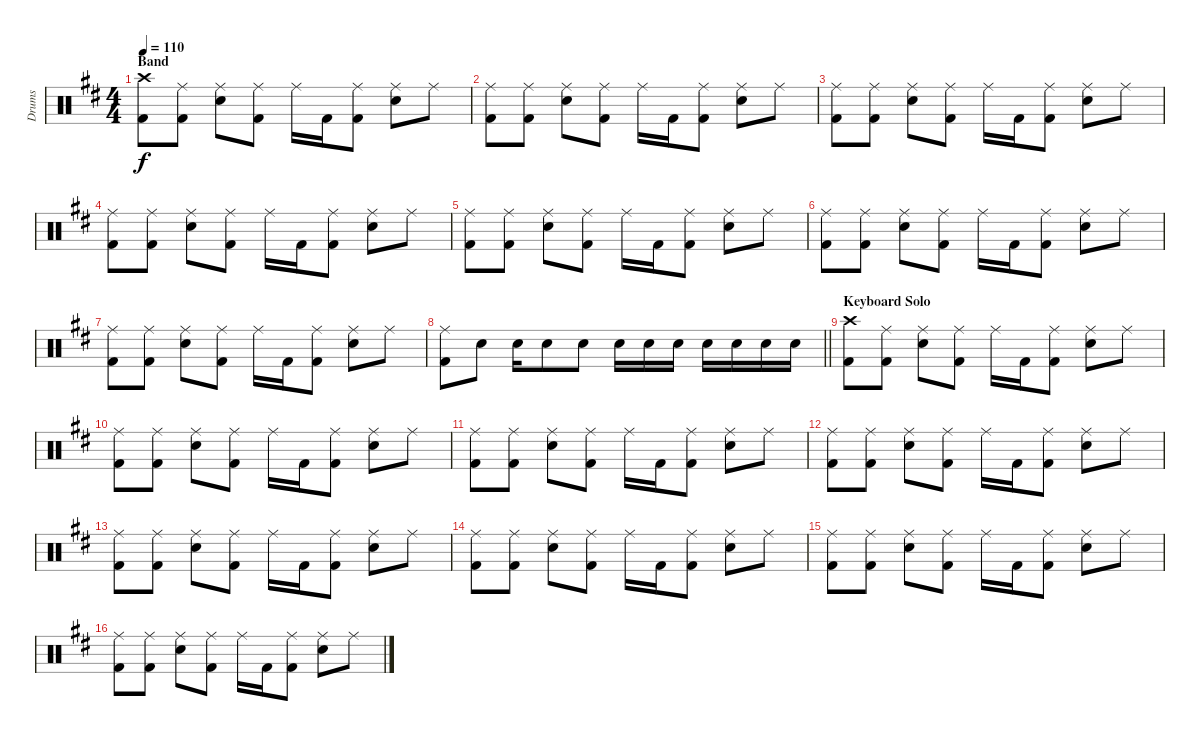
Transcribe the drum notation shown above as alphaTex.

\track ("Drums" "Drums") {instrument percussion}
\staff {score}
\articulation defaults
\ts (4 4)
\section ("" "Band")
\tempo 110
\clef neutral
\ks bminor
("Crash high (hit)" "Kick (hit) 2").8{dy f} ("Ride (middle)" "Kick (hit) 2").8 ("Ride (middle)" "Electric Snare (hit)").8 ("Ride (middle)" "Kick (hit) 2").8 "Ride (middle)".16 "Kick (hit) 2".16 ("Ride (middle)" "Kick (hit) 2").8 ("Ride (middle)" "Electric Snare (hit)").8 "Ride (middle)".8 |
("Ride (middle)" "Kick (hit) 2").8 ("Ride (middle)" "Kick (hit) 2").8 ("Ride (middle)" "Electric Snare (hit)").8 ("Ride (middle)" "Kick (hit) 2").8 "Ride (middle)".16 "Kick (hit) 2".16 ("Ride (middle)" "Kick (hit) 2").8 ("Ride (middle)" "Electric Snare (hit)").8 "Ride (middle)".8 |
("Ride (middle)" "Kick (hit) 2").8 ("Ride (middle)" "Kick (hit) 2").8 ("Ride (middle)" "Electric Snare (hit)").8 ("Ride (middle)" "Kick (hit) 2").8 "Ride (middle)".16 "Kick (hit) 2".16 ("Ride (middle)" "Kick (hit) 2").8 ("Ride (middle)" "Electric Snare (hit)").8 "Ride (middle)".8 |
("Ride (middle)" "Kick (hit) 2").8 ("Ride (middle)" "Kick (hit) 2").8 ("Ride (middle)" "Electric Snare (hit)").8 ("Ride (middle)" "Kick (hit) 2").8 "Ride (middle)".16 "Kick (hit) 2".16 ("Ride (middle)" "Kick (hit) 2").8 ("Ride (middle)" "Electric Snare (hit)").8 "Ride (middle)".8 |
("Ride (middle)" "Kick (hit) 2").8 ("Ride (middle)" "Kick (hit) 2").8 ("Ride (middle)" "Electric Snare (hit)").8 ("Ride (middle)" "Kick (hit) 2").8 "Ride (middle)".16 "Kick (hit) 2".16 ("Ride (middle)" "Kick (hit) 2").8 ("Ride (middle)" "Electric Snare (hit)").8 "Ride (middle)".8 |
("Ride (middle)" "Kick (hit) 2").8 ("Ride (middle)" "Kick (hit) 2").8 ("Ride (middle)" "Electric Snare (hit)").8 ("Ride (middle)" "Kick (hit) 2").8 "Ride (middle)".16 "Kick (hit) 2".16 ("Ride (middle)" "Kick (hit) 2").8 ("Ride (middle)" "Electric Snare (hit)").8 "Ride (middle)".8 |
("Ride (middle)" "Kick (hit) 2").8 ("Ride (middle)" "Kick (hit) 2").8 ("Ride (middle)" "Electric Snare (hit)").8 ("Ride (middle)" "Kick (hit) 2").8 "Ride (middle)".16 "Kick (hit) 2".16 ("Ride (middle)" "Kick (hit) 2").8 ("Ride (middle)" "Electric Snare (hit)").8 "Ride (middle)".8 |
\barLineRight lightlight
("Ride (middle)" "Kick (hit) 2").8 "Electric Snare (hit)".8 "Electric Snare (hit)".16 "Electric Snare (hit)".8 "Electric Snare (hit)".8 "Electric Snare (hit)".16 "Electric Snare (hit)".16 "Electric Snare (hit)".16 "Electric Snare (hit)".16 "Electric Snare (hit)".16 "Electric Snare (hit)".16 "Electric Snare (hit)".16 |
\section ("" "Keyboard Solo")
("Crash high (hit)" "Kick (hit) 2").8 ("Ride (middle)" "Kick (hit) 2").8 ("Ride (middle)" "Electric Snare (hit)").8 ("Ride (middle)" "Kick (hit) 2").8 "Ride (middle)".16 "Kick (hit) 2".16 ("Ride (middle)" "Kick (hit) 2").8 ("Ride (middle)" "Electric Snare (hit)").8 "Ride (middle)".8 |
("Ride (middle)" "Kick (hit) 2").8 ("Ride (middle)" "Kick (hit) 2").8 ("Ride (middle)" "Electric Snare (hit)").8 ("Ride (middle)" "Kick (hit) 2").8 "Ride (middle)".16 "Kick (hit) 2".16 ("Ride (middle)" "Kick (hit) 2").8 ("Ride (middle)" "Electric Snare (hit)").8 "Ride (middle)".8 |
("Ride (middle)" "Kick (hit) 2").8 ("Ride (middle)" "Kick (hit) 2").8 ("Ride (middle)" "Electric Snare (hit)").8 ("Ride (middle)" "Kick (hit) 2").8 "Ride (middle)".16 "Kick (hit) 2".16 ("Ride (middle)" "Kick (hit) 2").8 ("Ride (middle)" "Electric Snare (hit)").8 "Ride (middle)".8 |
("Ride (middle)" "Kick (hit) 2").8 ("Ride (middle)" "Kick (hit) 2").8 ("Ride (middle)" "Electric Snare (hit)").8 ("Ride (middle)" "Kick (hit) 2").8 "Ride (middle)".16 "Kick (hit) 2".16 ("Ride (middle)" "Kick (hit) 2").8 ("Ride (middle)" "Electric Snare (hit)").8 "Ride (middle)".8 |
("Ride (middle)" "Kick (hit) 2").8 ("Ride (middle)" "Kick (hit) 2").8 ("Ride (middle)" "Electric Snare (hit)").8 ("Ride (middle)" "Kick (hit) 2").8 "Ride (middle)".16 "Kick (hit) 2".16 ("Ride (middle)" "Kick (hit) 2").8 ("Ride (middle)" "Electric Snare (hit)").8 "Ride (middle)".8 |
("Ride (middle)" "Kick (hit) 2").8 ("Ride (middle)" "Kick (hit) 2").8 ("Ride (middle)" "Electric Snare (hit)").8 ("Ride (middle)" "Kick (hit) 2").8 "Ride (middle)".16 "Kick (hit) 2".16 ("Ride (middle)" "Kick (hit) 2").8 ("Ride (middle)" "Electric Snare (hit)").8 "Ride (middle)".8 |
("Ride (middle)" "Kick (hit) 2").8 ("Ride (middle)" "Kick (hit) 2").8 ("Ride (middle)" "Electric Snare (hit)").8 ("Ride (middle)" "Kick (hit) 2").8 "Ride (middle)".16 "Kick (hit) 2".16 ("Ride (middle)" "Kick (hit) 2").8 ("Ride (middle)" "Electric Snare (hit)").8 "Ride (middle)".8 |
("Ride (middle)" "Kick (hit) 2").8 ("Ride (middle)" "Kick (hit) 2").8 ("Ride (middle)" "Electric Snare (hit)").8 ("Ride (middle)" "Kick (hit) 2").8 "Ride (middle)".16 "Kick (hit) 2".16 ("Ride (middle)" "Kick (hit) 2").8 ("Ride (middle)" "Electric Snare (hit)").8 "Ride (middle)".8
